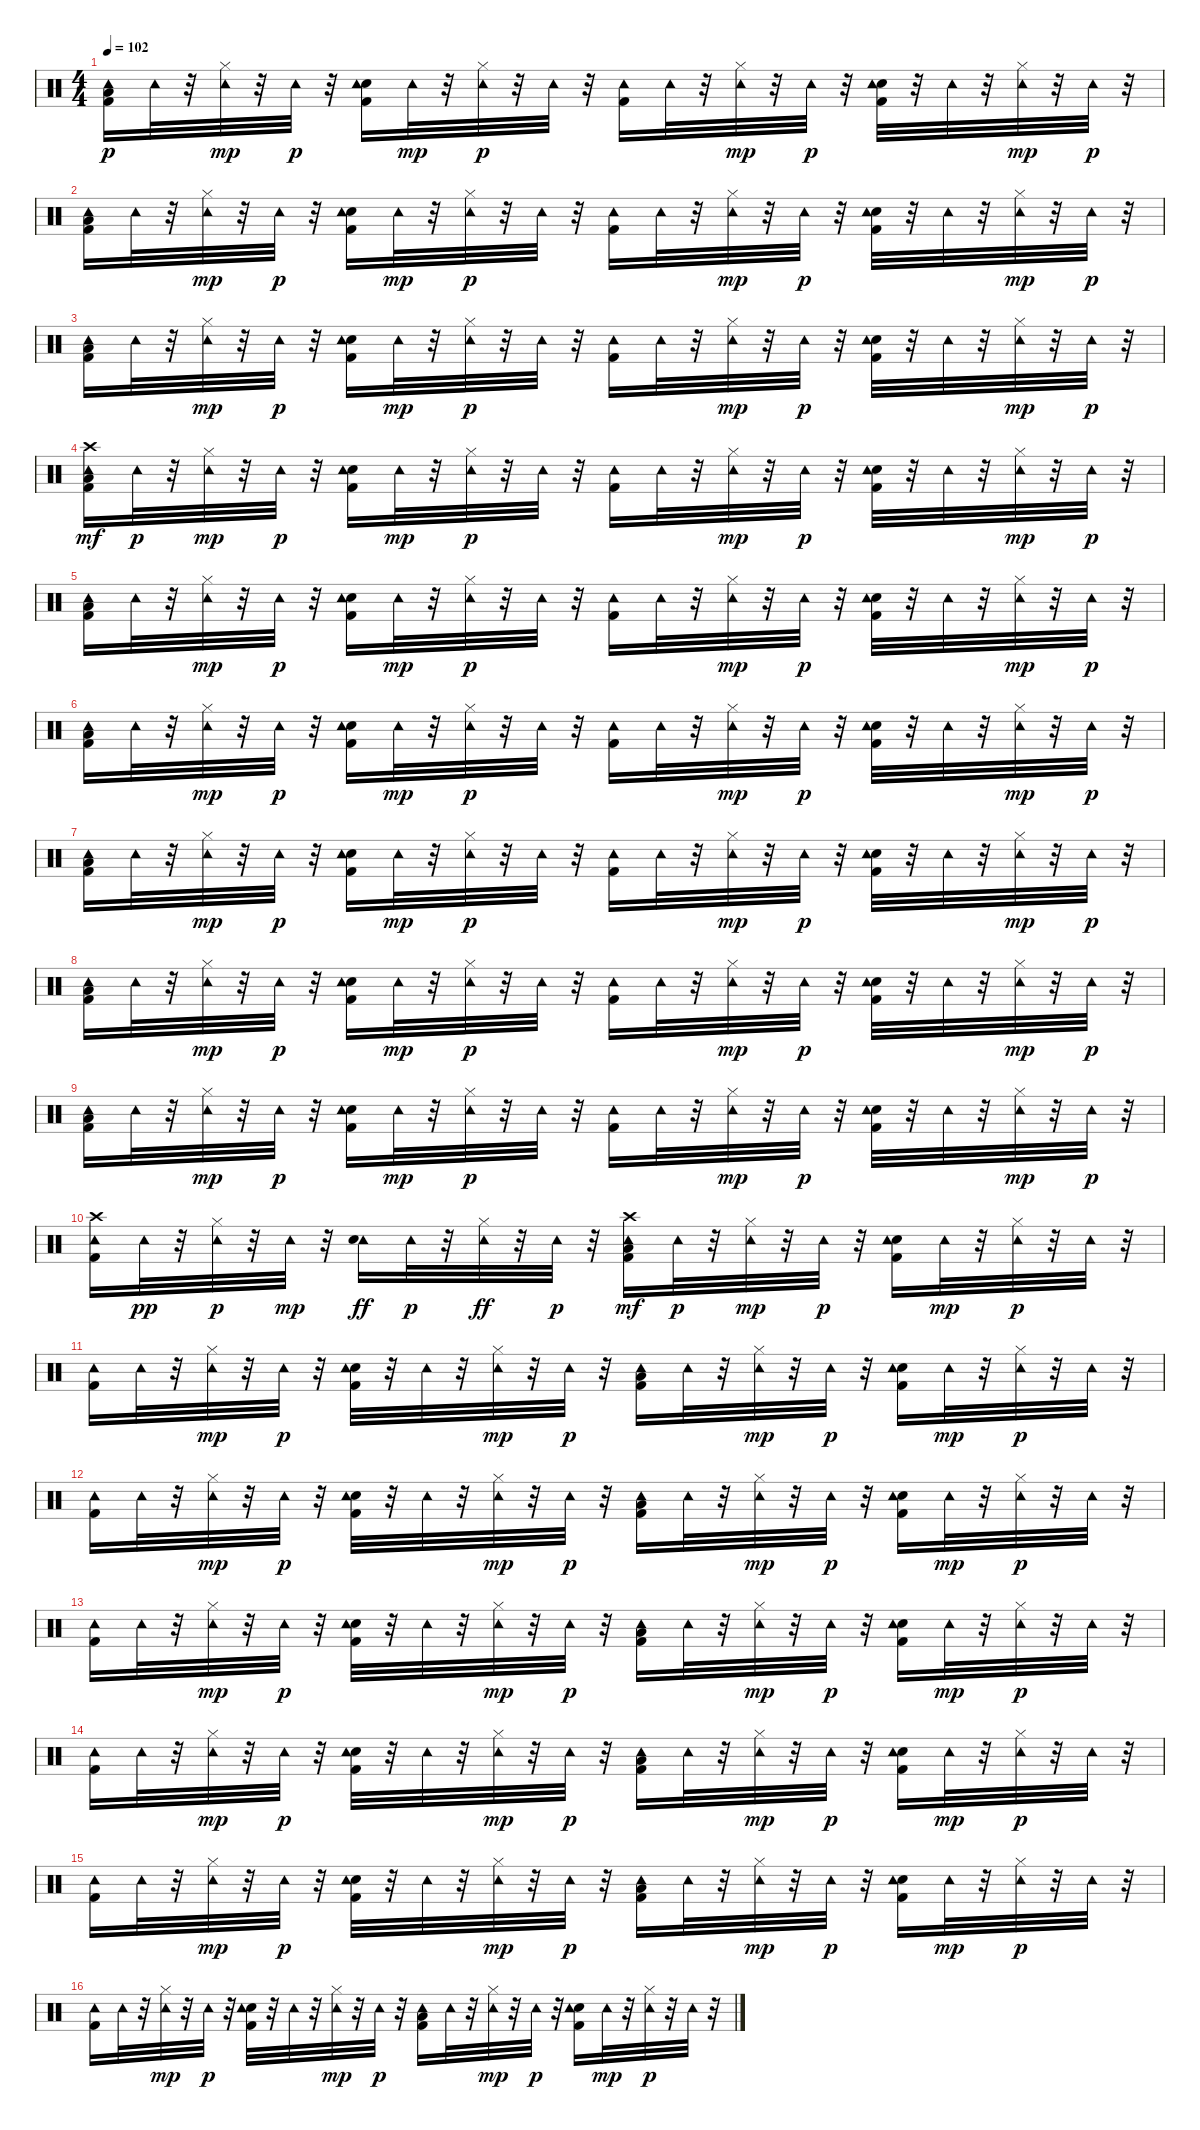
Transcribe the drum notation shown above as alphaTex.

\track "" {instrument percussion}
\staff {score}
\articulation defaults
\ts (4 4)
\tempo 102
\clef neutral
\ks c
("Low Floor Tom (hit)" "Kick (hit) 2" "Tambourine (hit)").16{dy p} "Tambourine (hit)".32 r.32 ("Tambourine (hit)" "Hi-Hat (closed)").32{dy mp} r.32 "Tambourine (hit)".32{dy p} r.32 ("Kick (hit) 2" "Snare (hit) 2" "Tambourine (hit)").16 "Tambourine (hit)".32{dy mp} r.32 ("Tambourine (hit)" "Hi-Hat (closed)").32{dy p} r.32 "Tambourine (hit)".32 r.32 ("Kick (hit) 2" "Tambourine (hit)").16 "Tambourine (hit)".32 r.32 ("Tambourine (hit)" "Hi-Hat (closed)").32{dy mp} r.32 "Tambourine (hit)".32{dy p} r.32 ("Kick (hit) 2" "Snare (hit) 2" "Tambourine (hit)").32 r.32 "Tambourine (hit)".32 r.32 ("Tambourine (hit)" "Hi-Hat (closed)").32{dy mp} r.32 "Tambourine (hit)".32{dy p} r.32 |
("Low Floor Tom (hit)" "Kick (hit) 2" "Tambourine (hit)").16 "Tambourine (hit)".32 r.32 ("Tambourine (hit)" "Hi-Hat (closed)").32{dy mp} r.32 "Tambourine (hit)".32{dy p} r.32 ("Kick (hit) 2" "Snare (hit) 2" "Tambourine (hit)").16 "Tambourine (hit)".32{dy mp} r.32 ("Tambourine (hit)" "Hi-Hat (closed)").32{dy p} r.32 "Tambourine (hit)".32 r.32 ("Kick (hit) 2" "Tambourine (hit)").16 "Tambourine (hit)".32 r.32 ("Tambourine (hit)" "Hi-Hat (closed)").32{dy mp} r.32 "Tambourine (hit)".32{dy p} r.32 ("Kick (hit) 2" "Snare (hit) 2" "Tambourine (hit)").32 r.32 "Tambourine (hit)".32 r.32 ("Tambourine (hit)" "Hi-Hat (closed)").32{dy mp} r.32 "Tambourine (hit)".32{dy p} r.32 |
("Low Floor Tom (hit)" "Kick (hit) 2" "Tambourine (hit)").16 "Tambourine (hit)".32 r.32 ("Tambourine (hit)" "Hi-Hat (closed)").32{dy mp} r.32 "Tambourine (hit)".32{dy p} r.32 ("Kick (hit) 2" "Snare (hit) 2" "Tambourine (hit)").16 "Tambourine (hit)".32{dy mp} r.32 ("Tambourine (hit)" "Hi-Hat (closed)").32{dy p} r.32 "Tambourine (hit)".32 r.32 ("Kick (hit) 2" "Tambourine (hit)").16 "Tambourine (hit)".32 r.32 ("Tambourine (hit)" "Hi-Hat (closed)").32{dy mp} r.32 "Tambourine (hit)".32{dy p} r.32 ("Kick (hit) 2" "Snare (hit) 2" "Tambourine (hit)").32 r.32 "Tambourine (hit)".32 r.32 ("Tambourine (hit)" "Hi-Hat (closed)").32{dy mp} r.32 "Tambourine (hit)".32{dy p} r.32 |
("Low Floor Tom (hit)" "Kick (hit) 2" "Tambourine (hit)" "Crash high (hit)").16{dy mf} "Tambourine (hit)".32{dy p} r.32 ("Tambourine (hit)" "Hi-Hat (closed)").32{dy mp} r.32 "Tambourine (hit)".32{dy p} r.32 ("Kick (hit) 2" "Snare (hit) 2" "Tambourine (hit)").16 "Tambourine (hit)".32{dy mp} r.32 ("Tambourine (hit)" "Hi-Hat (closed)").32{dy p} r.32 "Tambourine (hit)".32 r.32 ("Kick (hit) 2" "Tambourine (hit)").16 "Tambourine (hit)".32 r.32 ("Tambourine (hit)" "Hi-Hat (closed)").32{dy mp} r.32 "Tambourine (hit)".32{dy p} r.32 ("Kick (hit) 2" "Snare (hit) 2" "Tambourine (hit)").32 r.32 "Tambourine (hit)".32 r.32 ("Tambourine (hit)" "Hi-Hat (closed)").32{dy mp} r.32 "Tambourine (hit)".32{dy p} r.32 |
("Low Floor Tom (hit)" "Kick (hit) 2" "Tambourine (hit)").16 "Tambourine (hit)".32 r.32 ("Tambourine (hit)" "Hi-Hat (closed)").32{dy mp} r.32 "Tambourine (hit)".32{dy p} r.32 ("Kick (hit) 2" "Snare (hit) 2" "Tambourine (hit)").16 "Tambourine (hit)".32{dy mp} r.32 ("Tambourine (hit)" "Hi-Hat (closed)").32{dy p} r.32 "Tambourine (hit)".32 r.32 ("Kick (hit) 2" "Tambourine (hit)").16 "Tambourine (hit)".32 r.32 ("Tambourine (hit)" "Hi-Hat (closed)").32{dy mp} r.32 "Tambourine (hit)".32{dy p} r.32 ("Kick (hit) 2" "Snare (hit) 2" "Tambourine (hit)").32 r.32 "Tambourine (hit)".32 r.32 ("Tambourine (hit)" "Hi-Hat (closed)").32{dy mp} r.32 "Tambourine (hit)".32{dy p} r.32 |
("Low Floor Tom (hit)" "Kick (hit) 2" "Tambourine (hit)").16 "Tambourine (hit)".32 r.32 ("Tambourine (hit)" "Hi-Hat (closed)").32{dy mp} r.32 "Tambourine (hit)".32{dy p} r.32 ("Kick (hit) 2" "Snare (hit) 2" "Tambourine (hit)").16 "Tambourine (hit)".32{dy mp} r.32 ("Tambourine (hit)" "Hi-Hat (closed)").32{dy p} r.32 "Tambourine (hit)".32 r.32 ("Kick (hit) 2" "Tambourine (hit)").16 "Tambourine (hit)".32 r.32 ("Tambourine (hit)" "Hi-Hat (closed)").32{dy mp} r.32 "Tambourine (hit)".32{dy p} r.32 ("Kick (hit) 2" "Snare (hit) 2" "Tambourine (hit)").32 r.32 "Tambourine (hit)".32 r.32 ("Tambourine (hit)" "Hi-Hat (closed)").32{dy mp} r.32 "Tambourine (hit)".32{dy p} r.32 |
("Low Floor Tom (hit)" "Kick (hit) 2" "Tambourine (hit)").16 "Tambourine (hit)".32 r.32 ("Tambourine (hit)" "Hi-Hat (closed)").32{dy mp} r.32 "Tambourine (hit)".32{dy p} r.32 ("Kick (hit) 2" "Snare (hit) 2" "Tambourine (hit)").16 "Tambourine (hit)".32{dy mp} r.32 ("Tambourine (hit)" "Hi-Hat (closed)").32{dy p} r.32 "Tambourine (hit)".32 r.32 ("Kick (hit) 2" "Tambourine (hit)").16 "Tambourine (hit)".32 r.32 ("Tambourine (hit)" "Hi-Hat (closed)").32{dy mp} r.32 "Tambourine (hit)".32{dy p} r.32 ("Kick (hit) 2" "Snare (hit) 2" "Tambourine (hit)").32 r.32 "Tambourine (hit)".32 r.32 ("Tambourine (hit)" "Hi-Hat (closed)").32{dy mp} r.32 "Tambourine (hit)".32{dy p} r.32 |
("Low Floor Tom (hit)" "Kick (hit) 2" "Tambourine (hit)").16 "Tambourine (hit)".32 r.32 ("Tambourine (hit)" "Hi-Hat (closed)").32{dy mp} r.32 "Tambourine (hit)".32{dy p} r.32 ("Kick (hit) 2" "Snare (hit) 2" "Tambourine (hit)").16 "Tambourine (hit)".32{dy mp} r.32 ("Tambourine (hit)" "Hi-Hat (closed)").32{dy p} r.32 "Tambourine (hit)".32 r.32 ("Kick (hit) 2" "Tambourine (hit)").16 "Tambourine (hit)".32 r.32 ("Tambourine (hit)" "Hi-Hat (closed)").32{dy mp} r.32 "Tambourine (hit)".32{dy p} r.32 ("Kick (hit) 2" "Snare (hit) 2" "Tambourine (hit)").32 r.32 "Tambourine (hit)".32 r.32 ("Tambourine (hit)" "Hi-Hat (closed)").32{dy mp} r.32 "Tambourine (hit)".32{dy p} r.32 |
("Low Floor Tom (hit)" "Kick (hit) 2" "Tambourine (hit)").16 "Tambourine (hit)".32 r.32 ("Tambourine (hit)" "Hi-Hat (closed)").32{dy mp} r.32 "Tambourine (hit)".32{dy p} r.32 ("Kick (hit) 2" "Snare (hit) 2" "Tambourine (hit)").16 "Tambourine (hit)".32{dy mp} r.32 ("Tambourine (hit)" "Hi-Hat (closed)").32{dy p} r.32 "Tambourine (hit)".32 r.32 ("Kick (hit) 2" "Tambourine (hit)").16 "Tambourine (hit)".32 r.32 ("Tambourine (hit)" "Hi-Hat (closed)").32{dy mp} r.32 "Tambourine (hit)".32{dy p} r.32 ("Kick (hit) 2" "Snare (hit) 2" "Tambourine (hit)").32 r.32 "Tambourine (hit)".32 r.32 ("Tambourine (hit)" "Hi-Hat (closed)").32{dy mp} r.32 "Tambourine (hit)".32{dy p} r.32 |
("Crash high (hit)" "Kick (hit) 2" "Tambourine (hit)").16 "Tambourine (hit)".32{dy pp} r.32 ("Tambourine (hit)" "Hi-Hat (closed)").32{dy p} r.32 "Tambourine (hit)".32{dy mp} r.32 ("Tambourine (hit)" "Hand Clap (hit)").16{dy ff} "Tambourine (hit)".32{dy p} r.32 ("Tambourine (hit)" "Hi-Hat (closed)").32{dy ff} r.32 "Tambourine (hit)".32{dy p} r.32 ("Low Floor Tom (hit)" "Kick (hit) 2" "Tambourine (hit)" "Crash high (hit)").16{dy mf} "Tambourine (hit)".32{dy p} r.32 ("Tambourine (hit)" "Hi-Hat (closed)").32{dy mp} r.32 "Tambourine (hit)".32{dy p} r.32 ("Kick (hit) 2" "Snare (hit) 2" "Tambourine (hit)").16 "Tambourine (hit)".32{dy mp} r.32 ("Tambourine (hit)" "Hi-Hat (closed)").32{dy p} r.32 "Tambourine (hit)".32 r.32 |
("Kick (hit) 2" "Tambourine (hit)").16 "Tambourine (hit)".32 r.32 ("Tambourine (hit)" "Hi-Hat (closed)").32{dy mp} r.32 "Tambourine (hit)".32{dy p} r.32 ("Kick (hit) 2" "Snare (hit) 2" "Tambourine (hit)").32 r.32 "Tambourine (hit)".32 r.32 ("Tambourine (hit)" "Hi-Hat (closed)").32{dy mp} r.32 "Tambourine (hit)".32{dy p} r.32 ("Low Floor Tom (hit)" "Kick (hit) 2" "Tambourine (hit)").16 "Tambourine (hit)".32 r.32 ("Tambourine (hit)" "Hi-Hat (closed)").32{dy mp} r.32 "Tambourine (hit)".32{dy p} r.32 ("Kick (hit) 2" "Snare (hit) 2" "Tambourine (hit)").16 "Tambourine (hit)".32{dy mp} r.32 ("Tambourine (hit)" "Hi-Hat (closed)").32{dy p} r.32 "Tambourine (hit)".32 r.32 |
("Kick (hit) 2" "Tambourine (hit)").16 "Tambourine (hit)".32 r.32 ("Tambourine (hit)" "Hi-Hat (closed)").32{dy mp} r.32 "Tambourine (hit)".32{dy p} r.32 ("Kick (hit) 2" "Snare (hit) 2" "Tambourine (hit)").32 r.32 "Tambourine (hit)".32 r.32 ("Tambourine (hit)" "Hi-Hat (closed)").32{dy mp} r.32 "Tambourine (hit)".32{dy p} r.32 ("Low Floor Tom (hit)" "Kick (hit) 2" "Tambourine (hit)").16 "Tambourine (hit)".32 r.32 ("Tambourine (hit)" "Hi-Hat (closed)").32{dy mp} r.32 "Tambourine (hit)".32{dy p} r.32 ("Kick (hit) 2" "Snare (hit) 2" "Tambourine (hit)").16 "Tambourine (hit)".32{dy mp} r.32 ("Tambourine (hit)" "Hi-Hat (closed)").32{dy p} r.32 "Tambourine (hit)".32 r.32 |
("Kick (hit) 2" "Tambourine (hit)").16 "Tambourine (hit)".32 r.32 ("Tambourine (hit)" "Hi-Hat (closed)").32{dy mp} r.32 "Tambourine (hit)".32{dy p} r.32 ("Kick (hit) 2" "Snare (hit) 2" "Tambourine (hit)").32 r.32 "Tambourine (hit)".32 r.32 ("Tambourine (hit)" "Hi-Hat (closed)").32{dy mp} r.32 "Tambourine (hit)".32{dy p} r.32 ("Low Floor Tom (hit)" "Kick (hit) 2" "Tambourine (hit)").16 "Tambourine (hit)".32 r.32 ("Tambourine (hit)" "Hi-Hat (closed)").32{dy mp} r.32 "Tambourine (hit)".32{dy p} r.32 ("Kick (hit) 2" "Snare (hit) 2" "Tambourine (hit)").16 "Tambourine (hit)".32{dy mp} r.32 ("Tambourine (hit)" "Hi-Hat (closed)").32{dy p} r.32 "Tambourine (hit)".32 r.32 |
("Kick (hit) 2" "Tambourine (hit)").16 "Tambourine (hit)".32 r.32 ("Tambourine (hit)" "Hi-Hat (closed)").32{dy mp} r.32 "Tambourine (hit)".32{dy p} r.32 ("Kick (hit) 2" "Snare (hit) 2" "Tambourine (hit)").32 r.32 "Tambourine (hit)".32 r.32 ("Tambourine (hit)" "Hi-Hat (closed)").32{dy mp} r.32 "Tambourine (hit)".32{dy p} r.32 ("Low Floor Tom (hit)" "Kick (hit) 2" "Tambourine (hit)").16 "Tambourine (hit)".32 r.32 ("Tambourine (hit)" "Hi-Hat (closed)").32{dy mp} r.32 "Tambourine (hit)".32{dy p} r.32 ("Kick (hit) 2" "Snare (hit) 2" "Tambourine (hit)").16 "Tambourine (hit)".32{dy mp} r.32 ("Tambourine (hit)" "Hi-Hat (closed)").32{dy p} r.32 "Tambourine (hit)".32 r.32 |
("Kick (hit) 2" "Tambourine (hit)").16 "Tambourine (hit)".32 r.32 ("Tambourine (hit)" "Hi-Hat (closed)").32{dy mp} r.32 "Tambourine (hit)".32{dy p} r.32 ("Kick (hit) 2" "Snare (hit) 2" "Tambourine (hit)").32 r.32 "Tambourine (hit)".32 r.32 ("Tambourine (hit)" "Hi-Hat (closed)").32{dy mp} r.32 "Tambourine (hit)".32{dy p} r.32 ("Low Floor Tom (hit)" "Kick (hit) 2" "Tambourine (hit)").16 "Tambourine (hit)".32 r.32 ("Tambourine (hit)" "Hi-Hat (closed)").32{dy mp} r.32 "Tambourine (hit)".32{dy p} r.32 ("Kick (hit) 2" "Snare (hit) 2" "Tambourine (hit)").16 "Tambourine (hit)".32{dy mp} r.32 ("Tambourine (hit)" "Hi-Hat (closed)").32{dy p} r.32 "Tambourine (hit)".32 r.32 |
("Kick (hit) 2" "Tambourine (hit)").16 "Tambourine (hit)".32 r.32 ("Tambourine (hit)" "Hi-Hat (closed)").32{dy mp} r.32 "Tambourine (hit)".32{dy p} r.32 ("Kick (hit) 2" "Snare (hit) 2" "Tambourine (hit)").32 r.32 "Tambourine (hit)".32 r.32 ("Tambourine (hit)" "Hi-Hat (closed)").32{dy mp} r.32 "Tambourine (hit)".32{dy p} r.32 ("Low Floor Tom (hit)" "Kick (hit) 2" "Tambourine (hit)").16 "Tambourine (hit)".32 r.32 ("Tambourine (hit)" "Hi-Hat (closed)").32{dy mp} r.32 "Tambourine (hit)".32{dy p} r.32 ("Kick (hit) 2" "Snare (hit) 2" "Tambourine (hit)").16 "Tambourine (hit)".32{dy mp} r.32 ("Tambourine (hit)" "Hi-Hat (closed)").32{dy p} r.32 "Tambourine (hit)".32 r.32
